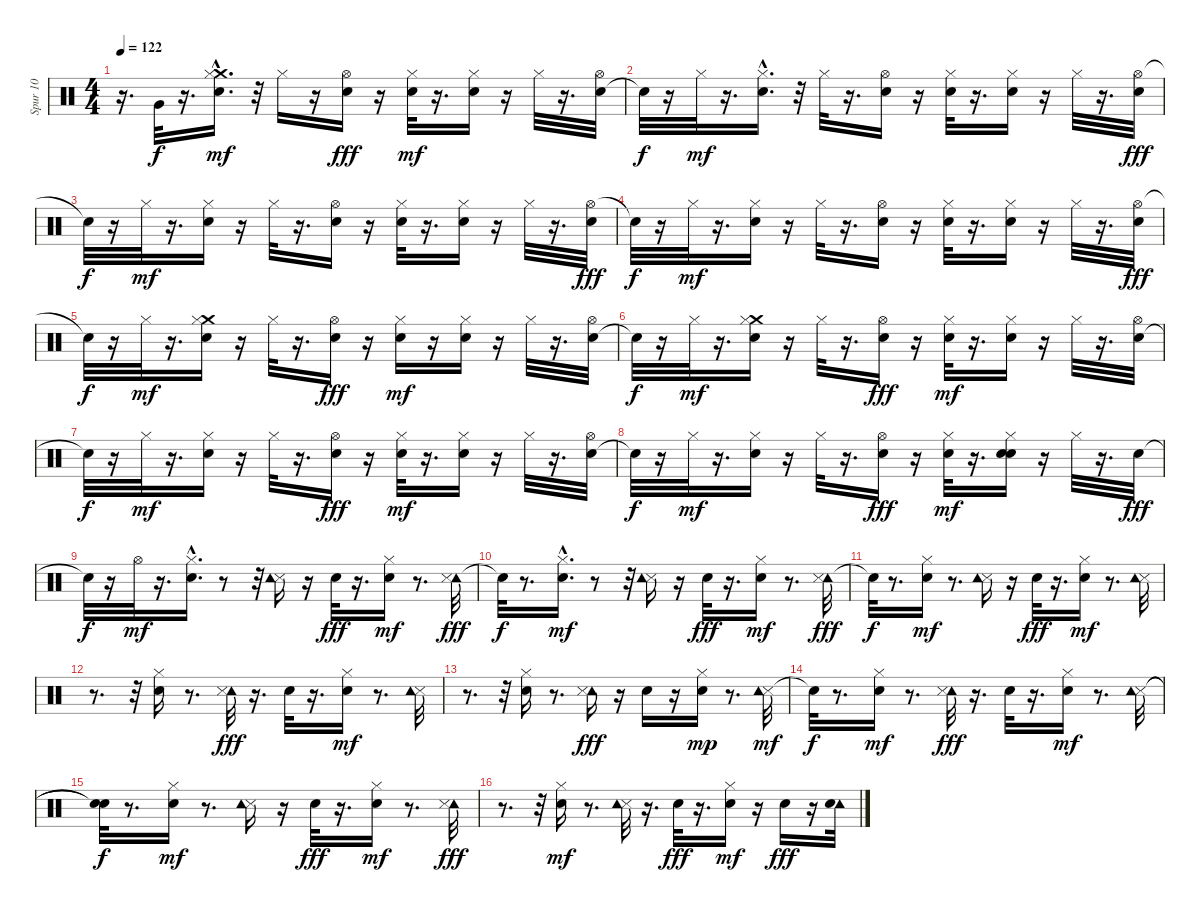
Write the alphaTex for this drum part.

\track ("Spur 10" "Spur 10") {instrument percussion}
\staff {score}
\articulation defaults
\ts (4 4)
\tempo 122
\clef neutral
\ks c
r.16{d dy f} "Very Low Tom (hit)".32 r.16{d} ("Crash medium (hit)" "Snare (hit)"{hac} "Hi-Hat (closed)").16{d dy mf} r.32 "Hi-Hat (closed)".16 r.16 ("Hi-Hat (open)" "Snare (hit) 2").16{dy fff} r.16 ("Snare (hit)" "Hi-Hat (closed)").32{dy mf} r.16{d} ("Snare (hit)" "Hi-Hat (closed)").16 r.16 "Hi-Hat (closed)".32 r.16{d} ("Snare (hit) 2" "Hi-Hat (open)").32 |
"Snare (hit)"{t}.32{dy f} r.16 "Hi-Hat (closed)".32{dy mf} r.16{d} ("Snare (hit)"{hac} "Hi-Hat (closed)").16{d} r.32 "Hi-Hat (closed)".32 r.16{d} ("Snare (hit) 2" "Hi-Hat (open)").16 r.16 ("Snare (hit)" "Hi-Hat (closed)").32 r.16{d} ("Snare (hit)" "Hi-Hat (closed)").16 r.16 "Hi-Hat (closed)".32 r.16{d} ("Hi-Hat (open)" "Snare (hit) 2").32{dy fff} |
"Snare (hit)"{t}.32{dy f} r.16 "Hi-Hat (closed)".32{dy mf} r.16{d} ("Snare (hit)" "Hi-Hat (closed)").16 r.16 "Hi-Hat (closed)".32 r.16{d} ("Snare (hit) 2" "Hi-Hat (open)").16 r.16 ("Snare (hit)" "Hi-Hat (closed)").32 r.16{d} ("Snare (hit)" "Hi-Hat (closed)").16 r.16 "Hi-Hat (closed)".32 r.16{d} ("Hi-Hat (open)" "Snare (hit) 2").32{dy fff} |
"Snare (hit)"{t}.32{dy f} r.16 "Hi-Hat (closed)".32{dy mf} r.16{d} ("Snare (hit)" "Hi-Hat (closed)").16 r.16 "Hi-Hat (closed)".32 r.16{d} ("Snare (hit) 2" "Hi-Hat (open)").16 r.16 ("Snare (hit)" "Hi-Hat (closed)").32 r.16{d} ("Snare (hit)" "Hi-Hat (closed)").16 r.16 "Hi-Hat (closed)".32 r.16{d} ("Hi-Hat (open)" "Snare (hit) 2").32{dy fff} |
"Snare (hit)"{t}.32{dy f} r.16 "Hi-Hat (closed)".32{dy mf} r.16{d} ("Snare (hit)" "Crash medium (hit)" "Hi-Hat (closed)").16 r.16 "Hi-Hat (closed)".32 r.16{d} ("Hi-Hat (open)" "Snare (hit) 2").16{dy fff} r.16 ("Snare (hit)" "Hi-Hat (closed)").16{dy mf} r.16 ("Snare (hit)" "Hi-Hat (closed)").16 r.16 "Hi-Hat (closed)".32 r.16{d} ("Snare (hit) 2" "Hi-Hat (open)").32 |
"Snare (hit)"{t}.32{dy f} r.16 "Hi-Hat (closed)".32{dy mf} r.16{d} ("Snare (hit)" "Crash medium (hit)" "Hi-Hat (closed)").16 r.16 "Hi-Hat (closed)".32 r.16{d} ("Hi-Hat (open)" "Snare (hit) 2").16{dy fff} r.16 ("Snare (hit)" "Hi-Hat (closed)").32{dy mf} r.16{d} ("Snare (hit)" "Hi-Hat (closed)").16 r.16 "Hi-Hat (closed)".32 r.16{d} ("Snare (hit) 2" "Hi-Hat (open)").32 |
"Snare (hit)"{t}.32{dy f} r.16 "Hi-Hat (closed)".32{dy mf} r.16{d} ("Snare (hit)" "Hi-Hat (closed)").16 r.16 "Hi-Hat (closed)".32 r.16{d} ("Hi-Hat (open)" "Snare (hit) 2").16{dy fff} r.16 ("Snare (hit)" "Hi-Hat (closed)").32{dy mf} r.16{d} ("Snare (hit)" "Hi-Hat (closed)").16 r.16 "Hi-Hat (closed)".32 r.16{d} ("Snare (hit) 2" "Hi-Hat (open)").32 |
"Snare (hit)"{t}.32{dy f} r.16 "Hi-Hat (closed)".32{dy mf} r.16{d} ("Snare (hit)" "Hi-Hat (closed)").16 r.16 "Hi-Hat (closed)".32 r.16{d} ("Hi-Hat (open)" "Snare (hit) 2").16{dy fff} r.16 ("Snare (hit)" "Hi-Hat (closed)").32{dy mf} r.16{d} ("Snare (hit) 2" "Snare (hit)" "Hi-Hat (closed)").16 r.16 "Hi-Hat (closed)".32 r.16{d} "Snare (hit) 2".32{dy fff} |
"Snare (hit)"{t}.32{dy f} r.16 "Hi-Hat (open)".32{dy mf} r.16{d} ("Snare (hit)"{hac} "Hi-Hat (closed)").16{d} r.8 r.32 ("Snare (side stick) 3" "Tambourine (hit)").16 r.16 "Snare (hit)".32{dy fff} r.16{d} ("Snare (hit)" "Hi-Hat (closed)").16{dy mf} r.8{d} ("Tambourine (hit)" "Snare (side stick) 3").32{dy fff} |
"Snare (hit)"{t}.32{dy f} r.8{d} ("Snare (hit)"{hac} "Hi-Hat (closed)").16{d dy mf} r.8 r.32 ("Snare (side stick) 3" "Tambourine (hit)").16 r.16 "Snare (hit)".32{dy fff} r.16{d} ("Snare (hit)" "Hi-Hat (closed)").16{dy mf} r.8{d} ("Tambourine (hit)" "Snare (side stick) 3").32{dy fff} |
"Snare (hit)"{t}.32{dy f} r.8{d} ("Snare (hit)" "Hi-Hat (closed)").16{dy mf} r.8{d} ("Snare (side stick) 3" "Tambourine (hit)").16 r.16 "Snare (hit)".32{dy fff} r.16{d} ("Snare (hit)" "Hi-Hat (closed)").16{dy mf} r.8{d} ("Snare (side stick) 3" "Tambourine (hit)").32 |
r.8{d} r.32 ("Snare (hit)" "Hi-Hat (closed)").16 r.8{d} ("Tambourine (hit)" "Snare (side stick) 3").32{dy fff} r.16{d} "Snare (hit)".32 r.16{d} ("Snare (hit)" "Hi-Hat (closed)").16{dy mf} r.8{d} ("Snare (side stick) 3" "Tambourine (hit)").32 |
r.8{d} r.32 ("Snare (hit)" "Hi-Hat (closed)").16 r.8{d} ("Tambourine (hit)" "Snare (side stick) 3").16{dy fff} r.16 "Snare (hit)".16 r.16 ("Snare (hit)" "Hi-Hat (closed)").16{dy mp} r.8{d} ("Snare (side stick) 3" "Tambourine (hit)").32{dy mf} |
"Snare (hit)"{t}.32{dy f} r.8{d} ("Snare (hit)" "Hi-Hat (closed)").16{dy mf} r.8{d} ("Tambourine (hit)" "Snare (side stick) 3").32{dy fff} r.16{d} "Snare (hit)".32 r.16{d} ("Snare (hit)" "Hi-Hat (closed)").16{dy mf} r.8{d} ("Snare (side stick) 3" "Tambourine (hit)").32 |
("Snare (hit)"{t} "Snare (hit)"{t}).32{dy f} r.8{d} ("Snare (hit)" "Hi-Hat (closed)").16{dy mf} r.8{d} ("Snare (side stick) 3" "Tambourine (hit)").16 r.16 "Snare (hit)".32{dy fff} r.16{d} ("Snare (hit)" "Hi-Hat (closed)").16{dy mf} r.8{d} ("Tambourine (hit)" "Snare (side stick) 3").32{dy fff} |
r.8{d} r.32 ("Snare (hit)" "Hi-Hat (closed)").16{dy mf} r.8{d} ("Snare (side stick) 3" "Tambourine (hit)").32 r.16{d} "Snare (hit)".32{dy fff} r.16{d} ("Snare (hit)" "Hi-Hat (closed)").16{dy mf} r.16 "Snare (hit)".16{dy fff} r.16 ("Tambourine (hit)" "Snare (hit) 2").32
